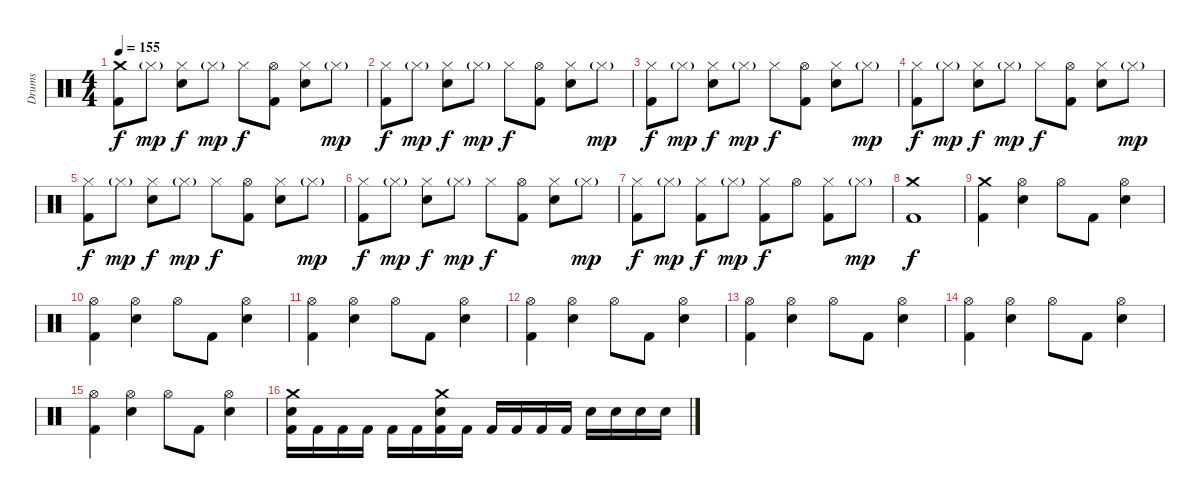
\track ("Drums" "Drums") {instrument percussion}
\staff {score}
\articulation defaults
\ts (4 4)
\tempo 155
\clef neutral
\ks c
("Crash medium (hit)" "Kick (hit) 2").8{dy f} "Hi-Hat (closed)"{g}.8{dy mp} ("Hi-Hat (closed)" "Snare (hit) 2").8{dy f} "Hi-Hat (closed)"{g}.8{dy mp} "Hi-Hat (closed)".8{dy f} ("Hi-Hat (open)" "Kick (hit) 2").8 ("Hi-Hat (closed)" "Snare (hit) 2").8 "Hi-Hat (closed)"{g}.8{dy mp} |
("Hi-Hat (closed)" "Kick (hit) 2").8{dy f} "Hi-Hat (closed)"{g}.8{dy mp} ("Hi-Hat (closed)" "Snare (hit) 2").8{dy f} "Hi-Hat (closed)"{g}.8{dy mp} "Hi-Hat (closed)".8{dy f} ("Hi-Hat (open)" "Kick (hit) 2").8 ("Hi-Hat (closed)" "Snare (hit) 2").8 "Hi-Hat (closed)"{g}.8{dy mp} |
("Hi-Hat (closed)" "Kick (hit) 2").8{dy f} "Hi-Hat (closed)"{g}.8{dy mp} ("Hi-Hat (closed)" "Snare (hit) 2").8{dy f} "Hi-Hat (closed)"{g}.8{dy mp} "Hi-Hat (closed)".8{dy f} ("Hi-Hat (open)" "Kick (hit) 2").8 ("Hi-Hat (closed)" "Snare (hit) 2").8 "Hi-Hat (closed)"{g}.8{dy mp} |
("Hi-Hat (closed)" "Kick (hit) 2").8{dy f} "Hi-Hat (closed)"{g}.8{dy mp} ("Hi-Hat (closed)" "Snare (hit) 2").8{dy f} "Hi-Hat (closed)"{g}.8{dy mp} "Hi-Hat (closed)".8{dy f} ("Hi-Hat (open)" "Kick (hit) 2").8 ("Hi-Hat (closed)" "Snare (hit) 2").8 "Hi-Hat (closed)"{g}.8{dy mp} |
("Hi-Hat (closed)" "Kick (hit) 2").8{dy f} "Hi-Hat (closed)"{g}.8{dy mp} ("Hi-Hat (closed)" "Snare (hit) 2").8{dy f} "Hi-Hat (closed)"{g}.8{dy mp} "Hi-Hat (closed)".8{dy f} ("Hi-Hat (open)" "Kick (hit) 2").8 ("Hi-Hat (closed)" "Snare (hit) 2").8 "Hi-Hat (closed)"{g}.8{dy mp} |
("Hi-Hat (closed)" "Kick (hit) 2").8{dy f} "Hi-Hat (closed)"{g}.8{dy mp} ("Hi-Hat (closed)" "Snare (hit) 2").8{dy f} "Hi-Hat (closed)"{g}.8{dy mp} "Hi-Hat (closed)".8{dy f} ("Hi-Hat (open)" "Kick (hit) 2").8 ("Hi-Hat (closed)" "Snare (hit) 2").8 "Hi-Hat (closed)"{g}.8{dy mp} |
("Hi-Hat (closed)" "Kick (hit) 2").8{dy f} "Hi-Hat (closed)"{g}.8{dy mp} ("Hi-Hat (closed)" "Kick (hit) 2").8{dy f} "Hi-Hat (closed)"{g}.8{dy mp} ("Hi-Hat (closed)" "Kick (hit) 2").8{dy f} "Hi-Hat (open)".8 ("Hi-Hat (closed)" "Kick (hit) 2").8 "Hi-Hat (closed)"{g}.8{dy mp} |
("Crash medium (hit)" "Kick (hit) 2").1{dy f} |
("Crash medium (hit)" "Kick (hit) 2").4 ("Hi-Hat (open)" "Snare (hit) 2").4 "Hi-Hat (open)".8 "Kick (hit) 2".8 ("Hi-Hat (open)" "Snare (hit) 2").4 |
("Hi-Hat (open)" "Kick (hit) 2").4 ("Hi-Hat (open)" "Snare (hit) 2").4 "Hi-Hat (open)".8 "Kick (hit) 2".8 ("Hi-Hat (open)" "Snare (hit) 2").4 |
("Hi-Hat (open)" "Kick (hit) 2").4 ("Hi-Hat (open)" "Snare (hit) 2").4 "Hi-Hat (open)".8 "Kick (hit) 2".8 ("Hi-Hat (open)" "Snare (hit) 2").4 |
("Hi-Hat (open)" "Kick (hit) 2").4 ("Hi-Hat (open)" "Snare (hit) 2").4 "Hi-Hat (open)".8 "Kick (hit) 2".8 ("Hi-Hat (open)" "Snare (hit) 2").4 |
("Hi-Hat (open)" "Kick (hit) 2").4 ("Hi-Hat (open)" "Snare (hit) 2").4 "Hi-Hat (open)".8 "Kick (hit) 2".8 ("Hi-Hat (open)" "Snare (hit) 2").4 |
("Hi-Hat (open)" "Kick (hit) 2").4 ("Hi-Hat (open)" "Snare (hit) 2").4 "Hi-Hat (open)".8 "Kick (hit) 2".8 ("Hi-Hat (open)" "Snare (hit) 2").4 |
("Hi-Hat (open)" "Kick (hit) 2").4 ("Hi-Hat (open)" "Snare (hit) 2").4 "Hi-Hat (open)".8 "Kick (hit) 2".8 ("Hi-Hat (open)" "Snare (hit) 2").4 |
("Crash medium (hit)" "Snare (hit) 2" "Kick (hit) 2").16 "Kick (hit) 2".16 "Kick (hit) 2".16 "Kick (hit) 2".16 "Kick (hit) 2".16 "Kick (hit) 2".16 ("Crash medium (hit)" "Snare (hit) 2" "Kick (hit) 2").16 "Kick (hit) 2".16 "Kick (hit) 2".16 "Kick (hit) 2".16 "Kick (hit) 2".16 "Kick (hit) 2".16 "Snare (hit) 2".16 "Snare (hit) 2".16 "Snare (hit) 2".16 "Snare (hit) 2".16
